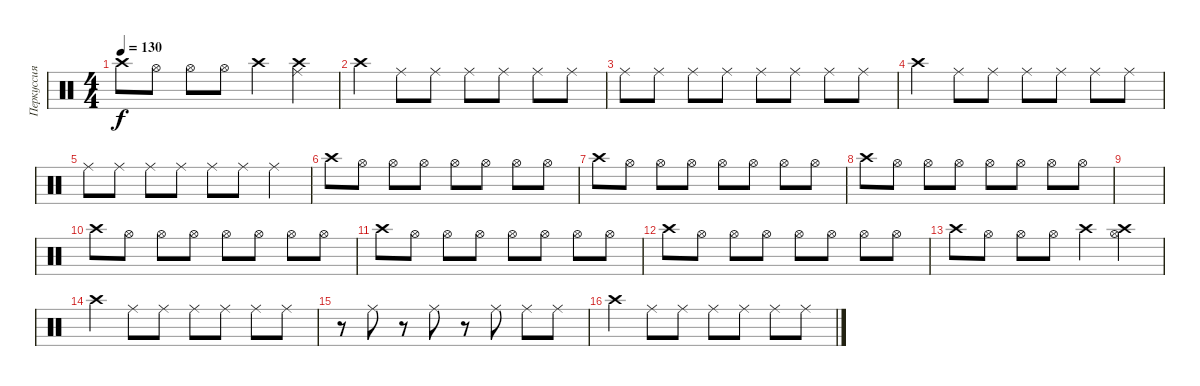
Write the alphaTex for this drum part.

\track ("Перкуссия" "Перкуссия") {instrument percussion}
\staff {score}
\articulation defaults
\ts (4 4)
\tempo 130
\clef neutral
\ks c "Crash high (hit)".8{dy f} "Hi-Hat (open)".8 "Hi-Hat (open)".8 "Hi-Hat (open)".8 "Crash high (hit)".4
("Ride (middle)" "Crash high (hit)").4 |
"Crash high (hit)".4 "Ride (middle)".8 "Ride (middle)".8 "Ride (middle)".8 "Ride (middle)".8 "Ride (middle)".8 "Ride (middle)".8 |
"Ride (middle)".8 "Ride (middle)".8 "Ride (middle)".8 "Ride (middle)".8 "Ride (middle)".8 "Ride (middle)".8 "Ride (middle)".8 "Ride (middle)".8 |
"Crash high (hit)".4 "Ride (middle)".8 "Ride (middle)".8 "Ride (middle)".8 "Ride (middle)".8 "Ride (middle)".8 "Ride (middle)".8 |
"Ride (middle)".8 "Ride (middle)".8 "Ride (middle)".8 "Ride (middle)".8 "Ride (middle)".8 "Ride (middle)".8 "Ride (middle)".4 |
"Crash high (hit)".8 "Hi-Hat (open)".8 "Hi-Hat (open)".8 "Hi-Hat (open)".8 "Hi-Hat (open)".8 "Hi-Hat (open)".8 "Hi-Hat (open)".8 "Hi-Hat (open)".8 |
"Crash high (hit)".8 "Hi-Hat (open)".8 "Hi-Hat (open)".8 "Hi-Hat (open)".8 "Hi-Hat (open)".8 "Hi-Hat (open)".8 "Hi-Hat (open)".8 "Hi-Hat (open)".8 |
"Crash high (hit)".8 "Hi-Hat (open)".8 "Hi-Hat (open)".8 "Hi-Hat (open)".8 "Hi-Hat (open)".8 "Hi-Hat (open)".8 "Hi-Hat (open)".8 "Hi-Hat (open)".8 |
|
"Crash high (hit)".8 "Hi-Hat (open)".8 "Hi-Hat (open)".8 "Hi-Hat (open)".8 "Hi-Hat (open)".8 "Hi-Hat (open)".8 "Hi-Hat (open)".8 "Hi-Hat (open)".8 |
"Crash high (hit)".8 "Hi-Hat (open)".8 "Hi-Hat (open)".8 "Hi-Hat (open)".8 "Hi-Hat (open)".8 "Hi-Hat (open)".8 "Hi-Hat (open)".8 "Hi-Hat (open)".8 |
"Crash high (hit)".8 "Hi-Hat (open)".8 "Hi-Hat (open)".8 "Hi-Hat (open)".8 "Hi-Hat (open)".8 "Hi-Hat (open)".8 "Hi-Hat (open)".8 "Hi-Hat (open)".8 |
"Crash high (hit)".8 "Hi-Hat (open)".8 "Hi-Hat (open)".8 "Hi-Hat (open)".8 "Crash high (hit)".4 ("Hi-Hat (open)" "Crash high (hit)").4 |
"Crash high (hit)".4 "Ride (middle)".8 "Ride (middle)".8 "Ride (middle)".8 "Ride (middle)".8 "Ride (middle)".8 "Ride (middle)".8 |
r.8 "Ride (middle)".8 r.8 "Ride (middle)".8 r.8 "Ride (middle)".8 "Ride (middle)".8 "Ride (middle)".8 |
"Crash high (hit)".4 "Ride (middle)".8 "Ride (middle)".8 "Ride (middle)".8 "Ride (middle)".8 "Ride (middle)".8 "Ride (middle)".8
